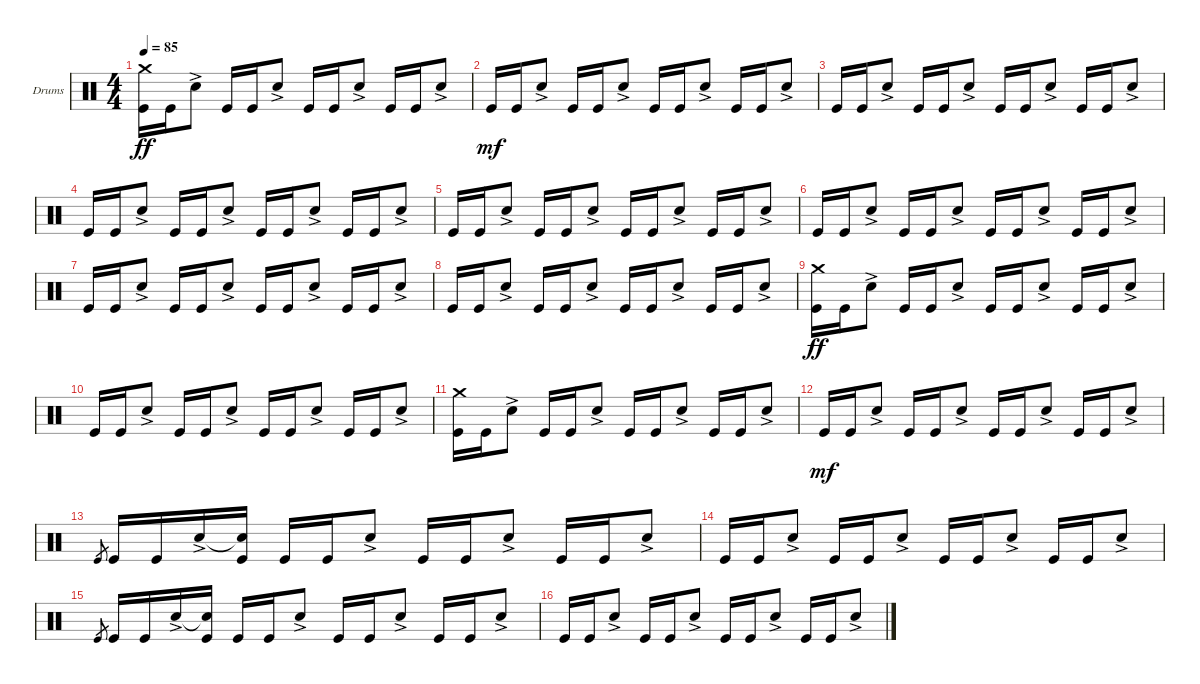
\defaultSystemsLayout 4
\bracketExtendMode groupsimilarinstruments
\firstSystemTrackNameOrientation horizontal
\otherSystemsTrackNameOrientation horizontal
\track ("Drumkit" "Drums") {instrument percussion}
\staff {score}
\articulation defaults
\ts (4 4)
\tempo 85
\clef neutral
\ks c
("Kick (hit)" "Crash medium (hit)").16{dy ff} "Kick (hit)".16 "Snare (hit) 2"{ac}.8 "Kick (hit)".16 "Kick (hit)".16 "Snare (hit) 2"{ac}.8 "Kick (hit)".16 "Kick (hit)".16 "Snare (hit) 2"{ac}.8 "Kick (hit)".16 "Kick (hit)".16 "Snare (hit) 2"{ac}.8 |
"Kick (hit)".16{dy mf} "Kick (hit)".16 "Snare (hit) 2"{ac}.8 "Kick (hit)".16 "Kick (hit)".16 "Snare (hit) 2"{ac}.8 "Kick (hit)".16 "Kick (hit)".16 "Snare (hit) 2"{ac}.8 "Kick (hit)".16 "Kick (hit)".16 "Snare (hit) 2"{ac}.8 |
"Kick (hit)".16 "Kick (hit)".16 "Snare (hit) 2"{ac}.8 "Kick (hit)".16 "Kick (hit)".16 "Snare (hit) 2"{ac}.8 "Kick (hit)".16 "Kick (hit)".16 "Snare (hit) 2"{ac}.8 "Kick (hit)".16 "Kick (hit)".16 "Snare (hit) 2"{ac}.8 |
"Kick (hit)".16 "Kick (hit)".16 "Snare (hit) 2"{ac}.8 "Kick (hit)".16 "Kick (hit)".16 "Snare (hit) 2"{ac}.8 "Kick (hit)".16 "Kick (hit)".16 "Snare (hit) 2"{ac}.8 "Kick (hit)".16 "Kick (hit)".16 "Snare (hit) 2"{ac}.8 |
"Kick (hit)".16 "Kick (hit)".16 "Snare (hit) 2"{ac}.8 "Kick (hit)".16 "Kick (hit)".16 "Snare (hit) 2"{ac}.8 "Kick (hit)".16 "Kick (hit)".16 "Snare (hit) 2"{ac}.8 "Kick (hit)".16 "Kick (hit)".16 "Snare (hit) 2"{ac}.8 |
"Kick (hit)".16 "Kick (hit)".16 "Snare (hit) 2"{ac}.8 "Kick (hit)".16 "Kick (hit)".16 "Snare (hit) 2"{ac}.8 "Kick (hit)".16 "Kick (hit)".16 "Snare (hit) 2"{ac}.8 "Kick (hit)".16 "Kick (hit)".16 "Snare (hit) 2"{ac}.8 |
"Kick (hit)".16 "Kick (hit)".16 "Snare (hit) 2"{ac}.8 "Kick (hit)".16 "Kick (hit)".16 "Snare (hit) 2"{ac}.8 "Kick (hit)".16 "Kick (hit)".16 "Snare (hit) 2"{ac}.8 "Kick (hit)".16 "Kick (hit)".16 "Snare (hit) 2"{ac}.8 |
"Kick (hit)".16 "Kick (hit)".16 "Snare (hit) 2"{ac}.8 "Kick (hit)".16 "Kick (hit)".16 "Snare (hit) 2"{ac}.8 "Kick (hit)".16 "Kick (hit)".16 "Snare (hit) 2"{ac}.8 "Kick (hit)".16 "Kick (hit)".16 "Snare (hit) 2"{ac}.8 |
("Kick (hit)" "Crash medium (hit)").16{dy ff} "Kick (hit)".16 "Snare (hit) 2"{ac}.8 "Kick (hit)".16 "Kick (hit)".16 "Snare (hit) 2"{ac}.8 "Kick (hit)".16 "Kick (hit)".16 "Snare (hit) 2"{ac}.8 "Kick (hit)".16 "Kick (hit)".16 "Snare (hit) 2"{ac}.8 |
"Kick (hit)".16 "Kick (hit)".16 "Snare (hit) 2"{ac}.8 "Kick (hit)".16 "Kick (hit)".16 "Snare (hit) 2"{ac}.8 "Kick (hit)".16 "Kick (hit)".16 "Snare (hit) 2"{ac}.8 "Kick (hit)".16 "Kick (hit)".16 "Snare (hit) 2"{ac}.8 |
("Kick (hit)" "Crash medium (hit)").16 "Kick (hit)".16 "Snare (hit) 2"{ac}.8 "Kick (hit)".16 "Kick (hit)".16 "Snare (hit) 2"{ac}.8 "Kick (hit)".16 "Kick (hit)".16 "Snare (hit) 2"{ac}.8 "Kick (hit)".16 "Kick (hit)".16 "Snare (hit) 2"{ac}.8 |
"Kick (hit)".16{dy mf} "Kick (hit)".16 "Snare (hit) 2"{ac}.8 "Kick (hit)".16 "Kick (hit)".16 "Snare (hit) 2"{ac}.8 "Kick (hit)".16 "Kick (hit)".16 "Snare (hit) 2"{ac}.8 "Kick (hit)".16 "Kick (hit)".16 "Snare (hit) 2"{ac}.8 |
"Kick (hit)".8{gr} "Kick (hit)".16 "Kick (hit)".16 "Snare (hit) 2"{ac}.16 ("Snare (hit) 2"{t} "Kick (hit)").16 "Kick (hit)".16 "Kick (hit)".16 "Snare (hit) 2"{ac}.8 "Kick (hit)".16 "Kick (hit)".16 "Snare (hit) 2"{ac}.8 "Kick (hit)".16 "Kick (hit)".16 "Snare (hit) 2"{ac}.8 |
"Kick (hit)".16 "Kick (hit)".16 "Snare (hit) 2"{ac}.8 "Kick (hit)".16 "Kick (hit)".16 "Snare (hit) 2"{ac}.8 "Kick (hit)".16 "Kick (hit)".16 "Snare (hit) 2"{ac}.8 "Kick (hit)".16 "Kick (hit)".16 "Snare (hit) 2"{ac}.8 |
"Kick (hit)".8{gr} "Kick (hit)".16 "Kick (hit)".16 "Snare (hit) 2"{ac}.16 ("Snare (hit) 2"{t} "Kick (hit)").16 "Kick (hit)".16 "Kick (hit)".16 "Snare (hit) 2"{ac}.8 "Kick (hit)".16 "Kick (hit)".16 "Snare (hit) 2"{ac}.8 "Kick (hit)".16 "Kick (hit)".16 "Snare (hit) 2"{ac}.8 |
"Kick (hit)".16 "Kick (hit)".16 "Snare (hit) 2"{ac}.8 "Kick (hit)".16 "Kick (hit)".16 "Snare (hit) 2"{ac}.8 "Kick (hit)".16 "Kick (hit)".16 "Snare (hit) 2"{ac}.8 "Kick (hit)".16 "Kick (hit)".16 "Snare (hit) 2"{ac}.8
